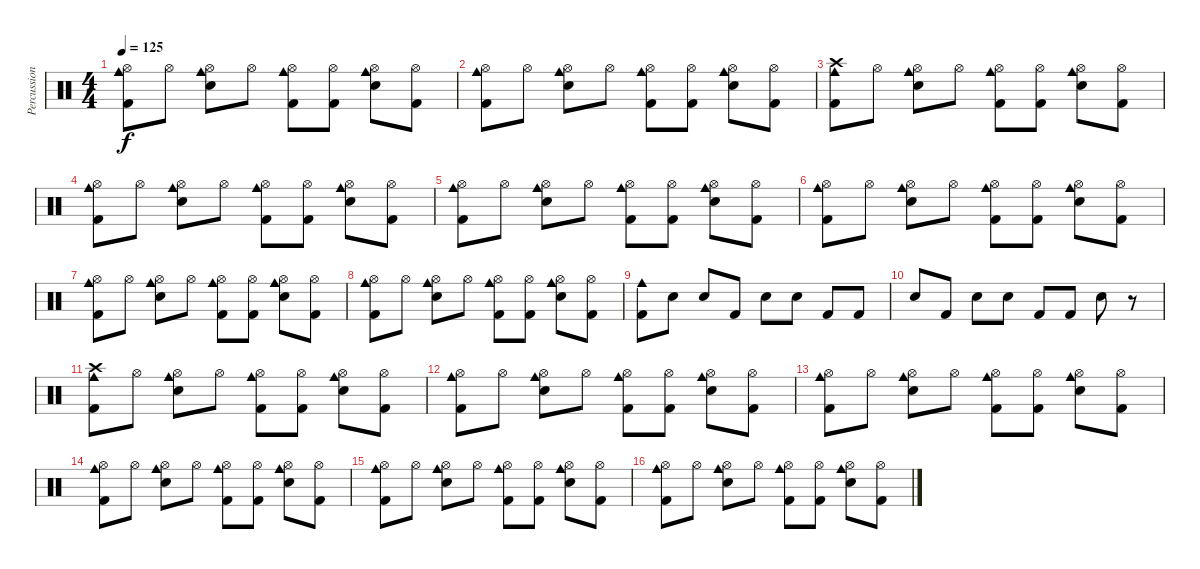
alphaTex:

\track ("Percussion" "Percussion") {instrument percussion}
\staff {score}
\articulation defaults
\ts (4 4)
\tempo 125
\clef neutral
\ks c
("Hi-Hat (open)" "Cowbell medium (hit)" "Kick (hit) 2").8{dy f} "Hi-Hat (open)".8 ("Hi-Hat (open)" "Snare (hit) 2" "Cowbell medium (hit)").8 "Hi-Hat (open)".8 ("Hi-Hat (open)" "Cowbell medium (hit)" "Kick (hit) 2").8 ("Hi-Hat (open)" "Kick (hit) 2").8 ("Hi-Hat (open)" "Snare (hit) 2" "Cowbell medium (hit)").8 ("Hi-Hat (open)" "Kick (hit) 2").8 |
("Hi-Hat (open)" "Cowbell medium (hit)" "Kick (hit) 2").8 "Hi-Hat (open)".8 ("Hi-Hat (open)" "Snare (hit) 2" "Cowbell medium (hit)").8 "Hi-Hat (open)".8 ("Hi-Hat (open)" "Cowbell medium (hit)" "Kick (hit) 2").8 ("Hi-Hat (open)" "Kick (hit) 2").8 ("Hi-Hat (open)" "Snare (hit) 2" "Cowbell medium (hit)").8 ("Hi-Hat (open)" "Kick (hit) 2").8 |
("Crash high (hit)" "Cowbell medium (hit)" "Kick (hit) 2").8 "Hi-Hat (open)".8 ("Hi-Hat (open)" "Snare (hit) 2" "Cowbell medium (hit)").8 "Hi-Hat (open)".8 ("Hi-Hat (open)" "Cowbell medium (hit)" "Kick (hit) 2").8 ("Hi-Hat (open)" "Kick (hit) 2").8 ("Hi-Hat (open)" "Snare (hit) 2" "Cowbell medium (hit)").8 ("Hi-Hat (open)" "Kick (hit) 2").8 |
("Hi-Hat (open)" "Cowbell medium (hit)" "Kick (hit) 2").8 "Hi-Hat (open)".8 ("Hi-Hat (open)" "Snare (hit) 2" "Cowbell medium (hit)").8 "Hi-Hat (open)".8 ("Hi-Hat (open)" "Cowbell medium (hit)" "Kick (hit) 2").8 ("Hi-Hat (open)" "Kick (hit) 2").8 ("Hi-Hat (open)" "Snare (hit) 2" "Cowbell medium (hit)").8 ("Hi-Hat (open)" "Kick (hit) 2").8 |
("Hi-Hat (open)" "Cowbell medium (hit)" "Kick (hit) 2").8 "Hi-Hat (open)".8 ("Hi-Hat (open)" "Snare (hit) 2" "Cowbell medium (hit)").8 "Hi-Hat (open)".8 ("Hi-Hat (open)" "Cowbell medium (hit)" "Kick (hit) 2").8 ("Hi-Hat (open)" "Kick (hit) 2").8 ("Hi-Hat (open)" "Snare (hit) 2" "Cowbell medium (hit)").8 ("Hi-Hat (open)" "Kick (hit) 2").8 |
("Hi-Hat (open)" "Cowbell medium (hit)" "Kick (hit) 2").8 "Hi-Hat (open)".8 ("Hi-Hat (open)" "Snare (hit) 2" "Cowbell medium (hit)").8 "Hi-Hat (open)".8 ("Hi-Hat (open)" "Cowbell medium (hit)" "Kick (hit) 2").8 ("Hi-Hat (open)" "Kick (hit) 2").8 ("Hi-Hat (open)" "Snare (hit) 2" "Cowbell medium (hit)").8 ("Hi-Hat (open)" "Kick (hit) 2").8 |
("Hi-Hat (open)" "Cowbell medium (hit)" "Kick (hit) 2").8 "Hi-Hat (open)".8 ("Hi-Hat (open)" "Snare (hit) 2" "Cowbell medium (hit)").8 "Hi-Hat (open)".8 ("Hi-Hat (open)" "Cowbell medium (hit)" "Kick (hit) 2").8 ("Hi-Hat (open)" "Kick (hit) 2").8 ("Hi-Hat (open)" "Snare (hit) 2" "Cowbell medium (hit)").8 ("Hi-Hat (open)" "Kick (hit) 2").8 |
("Hi-Hat (open)" "Cowbell medium (hit)" "Kick (hit) 2").8 "Hi-Hat (open)".8 ("Hi-Hat (open)" "Snare (hit) 2" "Cowbell medium (hit)").8 "Hi-Hat (open)".8 ("Hi-Hat (open)" "Cowbell medium (hit)" "Kick (hit) 2").8 ("Hi-Hat (open)" "Kick (hit) 2").8 ("Hi-Hat (open)" "Snare (hit) 2" "Cowbell medium (hit)").8 ("Hi-Hat (open)" "Kick (hit) 2").8 |
("Cowbell medium (hit)" "Kick (hit) 2").8 "Snare (hit) 2".8 "Snare (hit) 2".8 "Kick (hit) 2".8 "Snare (hit) 2".8 "Snare (hit) 2".8 "Kick (hit) 2".8 "Kick (hit) 2".8 |
"Snare (hit) 2".8 "Kick (hit) 2".8 "Snare (hit) 2".8 "Snare (hit) 2".8 "Kick (hit) 2".8 "Kick (hit) 2".8 "Snare (hit) 2".8 r.8 |
("Crash high (hit)" "Cowbell medium (hit)" "Kick (hit) 2").8 "Hi-Hat (open)".8 ("Hi-Hat (open)" "Snare (hit) 2" "Cowbell medium (hit)").8 "Hi-Hat (open)".8 ("Hi-Hat (open)" "Cowbell medium (hit)" "Kick (hit) 2").8 ("Hi-Hat (open)" "Kick (hit) 2").8 ("Hi-Hat (open)" "Snare (hit) 2" "Cowbell medium (hit)").8 ("Hi-Hat (open)" "Kick (hit) 2").8 |
("Hi-Hat (open)" "Cowbell medium (hit)" "Kick (hit) 2").8 "Hi-Hat (open)".8 ("Hi-Hat (open)" "Snare (hit) 2" "Cowbell medium (hit)").8 "Hi-Hat (open)".8 ("Hi-Hat (open)" "Cowbell medium (hit)" "Kick (hit) 2").8 ("Hi-Hat (open)" "Kick (hit) 2").8 ("Hi-Hat (open)" "Snare (hit) 2" "Cowbell medium (hit)").8 ("Hi-Hat (open)" "Kick (hit) 2").8 |
("Hi-Hat (open)" "Cowbell medium (hit)" "Kick (hit) 2").8 "Hi-Hat (open)".8 ("Hi-Hat (open)" "Snare (hit) 2" "Cowbell medium (hit)").8 "Hi-Hat (open)".8 ("Hi-Hat (open)" "Cowbell medium (hit)" "Kick (hit) 2").8 ("Hi-Hat (open)" "Kick (hit) 2").8 ("Hi-Hat (open)" "Snare (hit) 2" "Cowbell medium (hit)").8 ("Hi-Hat (open)" "Kick (hit) 2").8 |
("Hi-Hat (open)" "Cowbell medium (hit)" "Kick (hit) 2").8 "Hi-Hat (open)".8 ("Hi-Hat (open)" "Snare (hit) 2" "Cowbell medium (hit)").8 "Hi-Hat (open)".8 ("Hi-Hat (open)" "Cowbell medium (hit)" "Kick (hit) 2").8 ("Hi-Hat (open)" "Kick (hit) 2").8 ("Hi-Hat (open)" "Snare (hit) 2" "Cowbell medium (hit)").8 ("Hi-Hat (open)" "Kick (hit) 2").8 |
("Hi-Hat (open)" "Cowbell medium (hit)" "Kick (hit) 2").8 "Hi-Hat (open)".8 ("Hi-Hat (open)" "Snare (hit) 2" "Cowbell medium (hit)").8 "Hi-Hat (open)".8 ("Hi-Hat (open)" "Cowbell medium (hit)" "Kick (hit) 2").8 ("Hi-Hat (open)" "Kick (hit) 2").8 ("Hi-Hat (open)" "Snare (hit) 2" "Cowbell medium (hit)").8 ("Hi-Hat (open)" "Kick (hit) 2").8 |
("Hi-Hat (open)" "Cowbell medium (hit)" "Kick (hit) 2").8 "Hi-Hat (open)".8 ("Hi-Hat (open)" "Snare (hit) 2" "Cowbell medium (hit)").8 "Hi-Hat (open)".8 ("Hi-Hat (open)" "Cowbell medium (hit)" "Kick (hit) 2").8 ("Hi-Hat (open)" "Kick (hit) 2").8 ("Hi-Hat (open)" "Snare (hit) 2" "Cowbell medium (hit)").8 ("Hi-Hat (open)" "Kick (hit) 2").8
